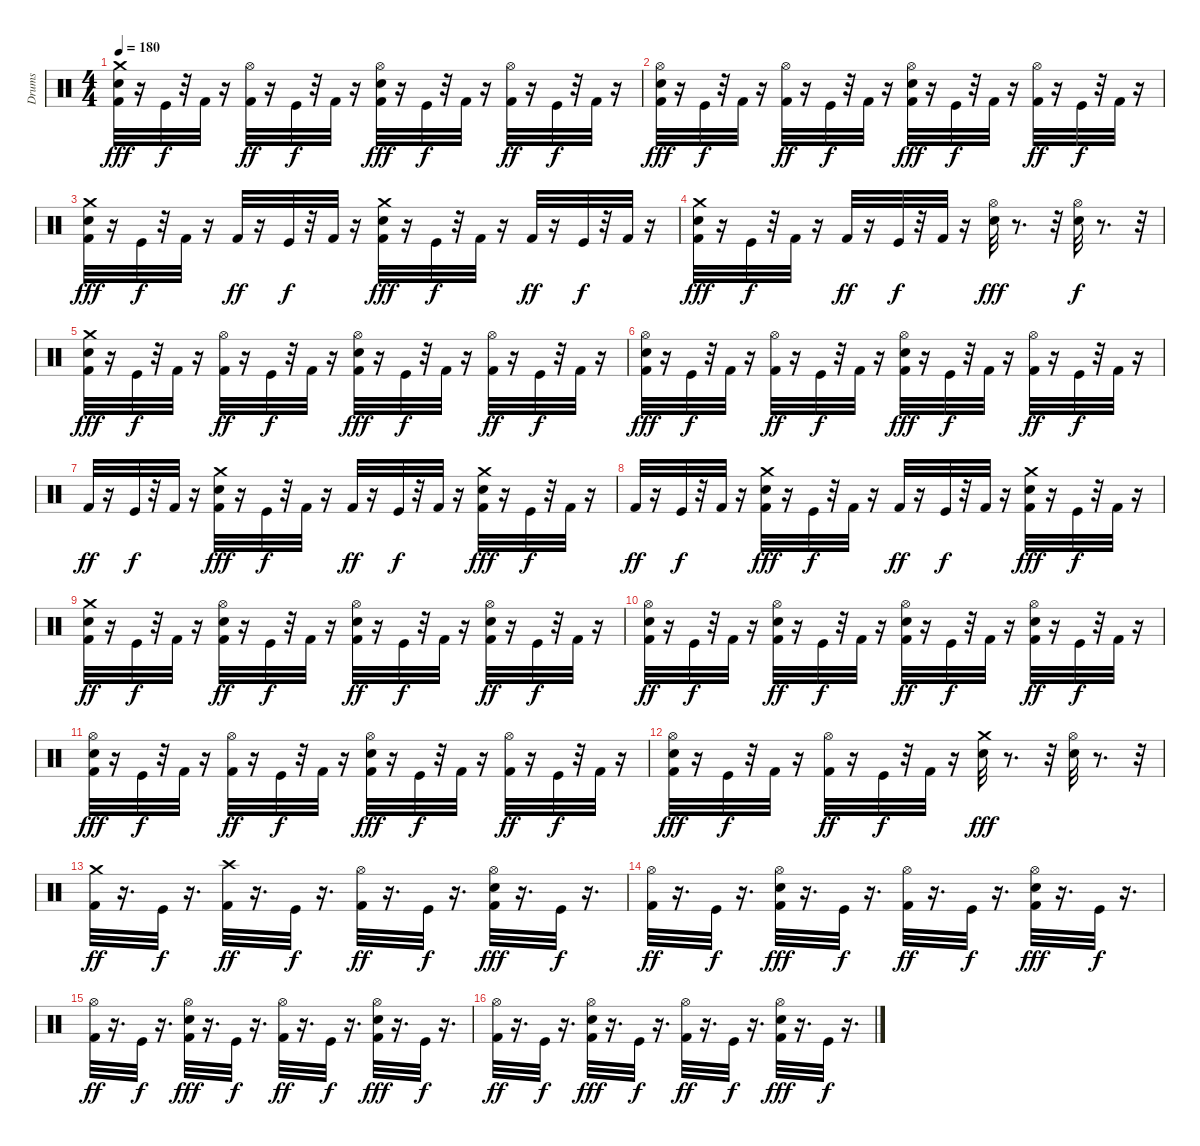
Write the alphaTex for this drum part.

\track ("Drums" "Drums") {instrument percussion}
\staff {score}
\articulation defaults
\ts (4 4)
\tempo 180
\clef neutral
\ks c
("Kick (hit) 2" "Snare (hit) 2" "Crash medium (hit)").32{dy fff} r.16 "Kick (hit)".32{dy f} r.32 "Kick (hit) 2".32 r.16 ("Kick (hit) 2" "Hi-Hat (open)").32{dy ff} r.16 "Kick (hit)".32{dy f} r.32 "Kick (hit) 2".32 r.16 ("Kick (hit) 2" "Snare (hit) 2" "Hi-Hat (open)").32{dy fff} r.16 "Kick (hit)".32{dy f} r.32 "Kick (hit) 2".32 r.16 ("Kick (hit) 2" "Hi-Hat (open)").32{dy ff} r.16 "Kick (hit)".32{dy f} r.32 "Kick (hit) 2".32 r.16 |
("Kick (hit) 2" "Snare (hit) 2" "Hi-Hat (open)").32{dy fff} r.16 "Kick (hit)".32{dy f} r.32 "Kick (hit) 2".32 r.16 ("Kick (hit) 2" "Hi-Hat (open)").32{dy ff} r.16 "Kick (hit)".32{dy f} r.32 "Kick (hit) 2".32 r.16 ("Kick (hit) 2" "Snare (hit) 2" "Hi-Hat (open)").32{dy fff} r.16 "Kick (hit)".32{dy f} r.32 "Kick (hit) 2".32 r.16 ("Kick (hit) 2" "Hi-Hat (open)").32{dy ff} r.16 "Kick (hit)".32{dy f} r.32 "Kick (hit) 2".32 r.16 |
("Kick (hit) 2" "Snare (hit) 2" "Crash medium (hit)").32{dy fff} r.16 "Kick (hit)".32{dy f} r.32 "Kick (hit) 2".32 r.16 "Kick (hit) 2".32{dy ff} r.16 "Kick (hit)".32{dy f} r.32 "Kick (hit) 2".32 r.16 ("Crash medium (hit)" "Kick (hit) 2" "Snare (hit) 2").32{dy fff} r.16 "Kick (hit)".32{dy f} r.32 "Kick (hit) 2".32 r.16 "Kick (hit) 2".32{dy ff} r.16 "Kick (hit)".32{dy f} r.32 "Kick (hit) 2".32 r.16 |
("Crash medium (hit)" "Kick (hit) 2" "Snare (hit) 2").32{dy fff} r.16 "Kick (hit)".32{dy f} r.32 "Kick (hit) 2".32 r.16 "Kick (hit) 2".32{dy ff} r.16 "Kick (hit)".32{dy f} r.32 "Kick (hit) 2".32 r.16 ("Hi-Hat (open)" "Snare (hit) 2").32{dy fff} r.8{d} r.32 ("Hi-Hat (open)" "Snare (hit) 2").32{dy f} r.8{d} r.32 |
("Kick (hit) 2" "Snare (hit) 2" "Crash medium (hit)").32{dy fff} r.16 "Kick (hit)".32{dy f} r.32 "Kick (hit) 2".32 r.16 ("Kick (hit) 2" "Hi-Hat (open)").32{dy ff} r.16 "Kick (hit)".32{dy f} r.32 "Kick (hit) 2".32 r.16 ("Kick (hit) 2" "Snare (hit) 2" "Hi-Hat (open)").32{dy fff} r.16 "Kick (hit)".32{dy f} r.32 "Kick (hit) 2".32 r.16 ("Kick (hit) 2" "Hi-Hat (open)").32{dy ff} r.16 "Kick (hit)".32{dy f} r.32 "Kick (hit) 2".32 r.16 |
("Kick (hit) 2" "Snare (hit) 2" "Hi-Hat (open)").32{dy fff} r.16 "Kick (hit)".32{dy f} r.32 "Kick (hit) 2".32 r.16 ("Kick (hit) 2" "Hi-Hat (open)").32{dy ff} r.16 "Kick (hit)".32{dy f} r.32 "Kick (hit) 2".32 r.16 ("Kick (hit) 2" "Snare (hit) 2" "Hi-Hat (open)").32{dy fff} r.16 "Kick (hit)".32{dy f} r.32 "Kick (hit) 2".32 r.16 ("Kick (hit) 2" "Hi-Hat (open)").32{dy ff} r.16 "Kick (hit)".32{dy f} r.32 "Kick (hit) 2".32 r.16 |
"Kick (hit) 2".32{dy ff} r.16 "Kick (hit)".32{dy f} r.32 "Kick (hit) 2".32 r.16 ("Kick (hit) 2" "Crash medium (hit)" "Snare (hit) 2").32{dy fff} r.16 "Kick (hit)".32{dy f} r.32 "Kick (hit) 2".32 r.16 "Kick (hit) 2".32{dy ff} r.16 "Kick (hit)".32{dy f} r.32 "Kick (hit) 2".32 r.16 ("Kick (hit) 2" "Crash medium (hit)" "Snare (hit) 2").32{dy fff} r.16 "Kick (hit)".32{dy f} r.32 "Kick (hit) 2".32 r.16 |
"Kick (hit) 2".32{dy ff} r.16 "Kick (hit)".32{dy f} r.32 "Kick (hit) 2".32 r.16 ("Kick (hit) 2" "Crash medium (hit)" "Snare (hit) 2").32{dy fff} r.16 "Kick (hit)".32{dy f} r.32 "Kick (hit) 2".32 r.16 "Kick (hit) 2".32{dy ff} r.16 "Kick (hit)".32{dy f} r.32 "Kick (hit) 2".32 r.16 ("Kick (hit) 2" "Crash medium (hit)" "Snare (hit) 2").32{dy fff} r.16 "Kick (hit)".32{dy f} r.32 "Kick (hit) 2".32 r.16 |
("Snare (hit) 2" "Crash medium (hit)" "Kick (hit) 2").32{dy ff} r.16 "Kick (hit)".32{dy f} r.32 "Kick (hit) 2".32 r.16 ("Hi-Hat (open)" "Snare (hit) 2" "Kick (hit) 2").32{dy ff} r.16 "Kick (hit)".32{dy f} r.32 "Kick (hit) 2".32 r.16 ("Hi-Hat (open)" "Snare (hit) 2" "Kick (hit) 2").32{dy ff} r.16 "Kick (hit)".32{dy f} r.32 "Kick (hit) 2".32 r.16 ("Hi-Hat (open)" "Snare (hit) 2" "Kick (hit) 2").32{dy ff} r.16 "Kick (hit)".32{dy f} r.32 "Kick (hit) 2".32 r.16 |
("Snare (hit) 2" "Hi-Hat (open)" "Kick (hit) 2").32{dy ff} r.16 "Kick (hit)".32{dy f} r.32 "Kick (hit) 2".32 r.16 ("Hi-Hat (open)" "Snare (hit) 2" "Kick (hit) 2").32{dy ff} r.16 "Kick (hit)".32{dy f} r.32 "Kick (hit) 2".32 r.16 ("Hi-Hat (open)" "Snare (hit) 2" "Kick (hit) 2").32{dy ff} r.16 "Kick (hit)".32{dy f} r.32 "Kick (hit) 2".32 r.16 ("Hi-Hat (open)" "Snare (hit) 2" "Kick (hit) 2").32{dy ff} r.16 "Kick (hit)".32{dy f} r.32 "Kick (hit) 2".32 r.16 |
("Kick (hit) 2" "Snare (hit) 2" "Hi-Hat (open)").32{dy fff} r.16 "Kick (hit)".32{dy f} r.32 "Kick (hit) 2".32 r.16 ("Kick (hit) 2" "Hi-Hat (open)").32{dy ff} r.16 "Kick (hit)".32{dy f} r.32 "Kick (hit) 2".32 r.16 ("Kick (hit) 2" "Snare (hit) 2" "Hi-Hat (open)").32{dy fff} r.16 "Kick (hit)".32{dy f} r.32 "Kick (hit) 2".32 r.16 ("Kick (hit) 2" "Hi-Hat (open)").32{dy ff} r.16 "Kick (hit)".32{dy f} r.32 "Kick (hit) 2".32 r.16 |
("Kick (hit) 2" "Snare (hit) 2" "Hi-Hat (open)").32{dy fff} r.16 "Kick (hit)".32{dy f} r.32 "Kick (hit) 2".32 r.16 ("Kick (hit) 2" "Hi-Hat (open)").32{dy ff} r.16 "Kick (hit)".32{dy f} r.32 "Kick (hit) 2".32 r.16 ("Snare (hit) 2" "Crash medium (hit)").32{dy fff} r.8{d} r.32 ("Snare (hit) 2" "Hi-Hat (open)").32 r.8{d} r.32 |
("Kick (hit) 2" "Crash medium (hit)").32{dy ff} r.16{d} "Kick (hit)".32{dy f} r.16{d} ("Kick (hit) 2" "Crash high (hit)").32{dy ff} r.16{d} "Kick (hit)".32{dy f} r.16{d} ("Kick (hit) 2" "Hi-Hat (open)").32{dy ff} r.16{d} "Kick (hit)".32{dy f} r.16{d} ("Snare (hit) 2" "Kick (hit) 2" "Hi-Hat (open)").32{dy fff} r.16{d} "Kick (hit)".32{dy f} r.16{d} |
("Kick (hit) 2" "Hi-Hat (open)").32{dy ff} r.16{d} "Kick (hit)".32{dy f} r.16{d} ("Snare (hit) 2" "Kick (hit) 2" "Hi-Hat (open)").32{dy fff} r.16{d} "Kick (hit)".32{dy f} r.16{d} ("Kick (hit) 2" "Hi-Hat (open)").32{dy ff} r.16{d} "Kick (hit)".32{dy f} r.16{d} ("Snare (hit) 2" "Kick (hit) 2" "Hi-Hat (open)").32{dy fff} r.16{d} "Kick (hit)".32{dy f} r.16{d} |
("Kick (hit) 2" "Hi-Hat (open)").32{dy ff} r.16{d} "Kick (hit)".32{dy f} r.16{d} ("Snare (hit) 2" "Kick (hit) 2" "Hi-Hat (open)").32{dy fff} r.16{d} "Kick (hit)".32{dy f} r.16{d} ("Kick (hit) 2" "Hi-Hat (open)").32{dy ff} r.16{d} "Kick (hit)".32{dy f} r.16{d} ("Snare (hit) 2" "Kick (hit) 2" "Hi-Hat (open)").32{dy fff} r.16{d} "Kick (hit)".32{dy f} r.16{d} |
("Kick (hit) 2" "Hi-Hat (open)").32{dy ff} r.16{d} "Kick (hit)".32{dy f} r.16{d} ("Snare (hit) 2" "Kick (hit) 2" "Hi-Hat (open)").32{dy fff} r.16{d} "Kick (hit)".32{dy f} r.16{d} ("Kick (hit) 2" "Hi-Hat (open)").32{dy ff} r.16{d} "Kick (hit)".32{dy f} r.16{d} ("Snare (hit) 2" "Kick (hit) 2" "Hi-Hat (open)").32{dy fff} r.16{d} "Kick (hit)".32{dy f} r.16{d}
